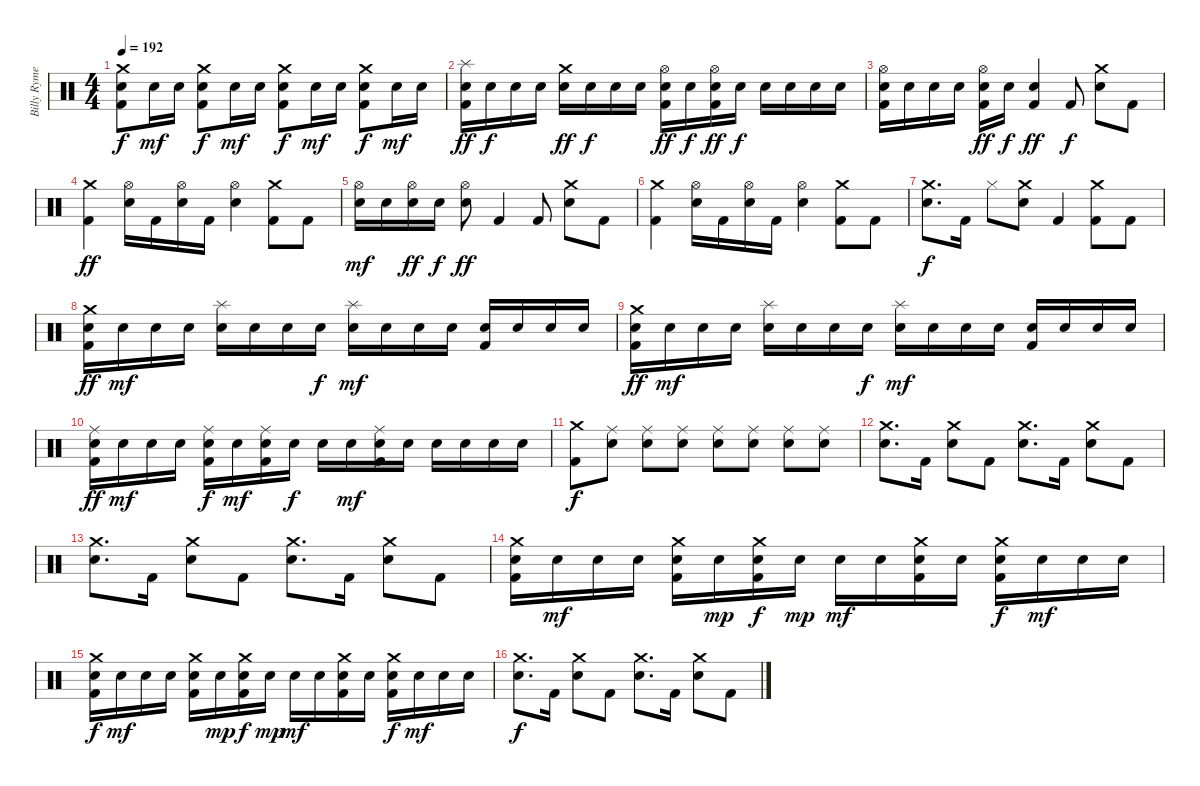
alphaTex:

\track ("Billy Rymer" "Billy Ryme") {instrument percussion}
\staff {score}
\articulation defaults
\ts (4 4)
\tempo 192
\clef neutral
\ks c
("Crash medium (hit)" "Electric Snare (hit)" "Kick (hit) 2").8{dy f} "Electric Snare (hit)".16{dy mf} "Electric Snare (hit)".16 ("Crash medium (hit)" "Electric Snare (hit)" "Kick (hit) 2").8{dy f} "Electric Snare (hit)".16{dy mf} "Electric Snare (hit)".16 ("Crash medium (hit)" "Electric Snare (hit)" "Kick (hit) 2").8{dy f} "Electric Snare (hit)".16{dy mf} "Electric Snare (hit)".16 ("Crash medium (hit)" "Electric Snare (hit)" "Kick (hit) 2").8{dy f} "Electric Snare (hit)".16{dy mf} "Electric Snare (hit)".16 |
("Splash (hit)" "Electric Snare (hit)" "Kick (hit) 2").16{dy ff} "Electric Snare (hit)".16{dy f} "Electric Snare (hit)".16 "Electric Snare (hit)".16 ("Crash medium (hit)" "Electric Snare (hit)").16{dy ff} "Electric Snare (hit)".16{dy f} "Electric Snare (hit)".16 "Electric Snare (hit)".16 ("Hi-Hat (open)" "Electric Snare (hit)" "Kick (hit) 2").16{dy ff} "Electric Snare (hit)".16{dy f} ("Hi-Hat (open)" "Electric Snare (hit)" "Kick (hit) 2").16{dy ff} "Electric Snare (hit)".16{dy f} "Electric Snare (hit)".16 "Electric Snare (hit)".16 "Electric Snare (hit)".16 "Electric Snare (hit)".16 |
("Hi-Hat (open)" "Electric Snare (hit)" "Kick (hit) 2").16 "Electric Snare (hit)".16 "Electric Snare (hit)".16 "Electric Snare (hit)".16 ("Hi-Hat (open)" "Electric Snare (hit)" "Kick (hit) 2").16{dy ff} "Electric Snare (hit)".16{dy f} ("Electric Snare (hit)" "Kick (hit) 2").4{dy ff} "Kick (hit) 2".8{dy f} ("Crash medium (hit)" "Electric Snare (hit)").8 "Kick (hit) 2".8 |
("Crash medium (hit)" "Kick (hit) 2").4{dy ff} ("Hi-Hat (open)" "Electric Snare (hit)").16 "Kick (hit) 2".16 ("Hi-Hat (open)" "Electric Snare (hit)").16 "Kick (hit) 2".16 ("Hi-Hat (open)" "Electric Snare (hit)").4 ("Crash medium (hit)" "Kick (hit) 2").8 "Kick (hit) 2".8 |
("Hi-Hat (open)" "Electric Snare (hit)").16{dy mf} "Electric Snare (hit)".16 ("Hi-Hat (open)" "Electric Snare (hit)").16{dy ff} "Electric Snare (hit)".16{dy f} ("Hi-Hat (open)" "Electric Snare (hit)").8{dy ff} "Kick (hit) 2".4 "Kick (hit) 2".8 ("Crash medium (hit)" "Electric Snare (hit)").8 "Kick (hit) 2".8 |
("Crash medium (hit)" "Kick (hit) 2").4 ("Hi-Hat (open)" "Electric Snare (hit)").16 "Kick (hit) 2".16 ("Hi-Hat (open)" "Electric Snare (hit)").16 "Kick (hit) 2".16 ("Hi-Hat (open)" "Electric Snare (hit)").4 ("Crash medium (hit)" "Kick (hit) 2").8 "Kick (hit) 2".8 |
("Crash medium (hit)" "Electric Snare (hit)").8{d dy f} "Kick (hit) 2".16 "Hi-Hat (closed)".8 ("Crash medium (hit)" "Electric Snare (hit)").8 "Kick (hit) 2".4 ("Crash medium (hit)" "Kick (hit) 2").8 "Kick (hit) 2".8 |
("Crash medium (hit)" "Electric Snare (hit)" "Kick (hit) 2").16{dy ff} "Electric Snare (hit)".16{dy mf} "Electric Snare (hit)".16 "Electric Snare (hit)".16 ("Splash (hit)" "Electric Snare (hit)").16 "Electric Snare (hit)".16 "Electric Snare (hit)".16 "Electric Snare (hit)".16{dy f} ("Splash (hit)" "Electric Snare (hit)").16{dy mf} "Electric Snare (hit)".16 "Electric Snare (hit)".16 "Electric Snare (hit)".16 ("Electric Snare (hit)" "Kick (hit) 2").16 "Electric Snare (hit)".16 "Electric Snare (hit)".16 "Electric Snare (hit)".16 |
("Crash medium (hit)" "Electric Snare (hit)" "Kick (hit) 2").16{dy ff} "Electric Snare (hit)".16{dy mf} "Electric Snare (hit)".16 "Electric Snare (hit)".16 ("Splash (hit)" "Electric Snare (hit)").16 "Electric Snare (hit)".16 "Electric Snare (hit)".16 "Electric Snare (hit)".16{dy f} ("Splash (hit)" "Electric Snare (hit)").16{dy mf} "Electric Snare (hit)".16 "Electric Snare (hit)".16 "Electric Snare (hit)".16 ("Electric Snare (hit)" "Kick (hit) 2").16 "Electric Snare (hit)".16 "Electric Snare (hit)".16 "Electric Snare (hit)".16 |
("Ride (middle)" "Electric Snare (hit)" "Kick (hit) 2").16{dy ff} "Electric Snare (hit)".16{dy mf} "Electric Snare (hit)".16 "Electric Snare (hit)".16 ("Ride (middle)" "Electric Snare (hit)" "Kick (hit) 2").16{dy f} "Electric Snare (hit)".16{dy mf} ("Ride (middle)" "Electric Snare (hit)" "Kick (hit) 2").16 "Electric Snare (hit)".16{dy f} "Electric Snare (hit)".16 "Electric Snare (hit)".16{dy mf} ("Ride (middle)" "Electric Snare (hit)" "Kick (hit) 2").16 "Electric Snare (hit)".16 "Electric Snare (hit)".16 "Electric Snare (hit)".16 "Electric Snare (hit)".16 "Electric Snare (hit)".16 |
("Crash medium (hit)" "Kick (hit) 2").8{dy f} ("Ride (middle)" "Electric Snare (hit)").8 ("Ride (middle)" "Electric Snare (hit)").8 ("Ride (middle)" "Electric Snare (hit)").8 ("Ride (middle)" "Electric Snare (hit)").8 ("Ride (middle)" "Electric Snare (hit)").8 ("Ride (middle)" "Electric Snare (hit)").8 ("Ride (middle)" "Electric Snare (hit)").8 |
("Crash medium (hit)" "Electric Snare (hit)").8{d} "Kick (hit) 2".16 ("Crash medium (hit)" "Electric Snare (hit)").8 "Kick (hit) 2".8 ("Crash medium (hit)" "Electric Snare (hit)").8{d} "Kick (hit) 2".16 ("Crash medium (hit)" "Electric Snare (hit)").8 "Kick (hit) 2".8 |
("Crash medium (hit)" "Electric Snare (hit)").8{d} "Kick (hit) 2".16 ("Crash medium (hit)" "Electric Snare (hit)").8 "Kick (hit) 2".8 ("Crash medium (hit)" "Electric Snare (hit)").8{d} "Kick (hit) 2".16 ("Crash medium (hit)" "Electric Snare (hit)").8 "Kick (hit) 2".8 |
("Crash medium (hit)" "Electric Snare (hit)" "Kick (hit) 2").16 "Electric Snare (hit)".16{dy mf} "Electric Snare (hit)".16 "Electric Snare (hit)".16 ("Crash medium (hit)" "Electric Snare (hit)" "Kick (hit) 2").16 "Electric Snare (hit)".16{dy mp} ("Crash medium (hit)" "Electric Snare (hit)" "Kick (hit) 2").16{dy f} "Electric Snare (hit)".16{dy mp} "Electric Snare (hit)".16{dy mf} "Electric Snare (hit)".16 ("Crash medium (hit)" "Electric Snare (hit)" "Kick (hit) 2").16 "Electric Snare (hit)".16 ("Crash medium (hit)" "Electric Snare (hit)" "Kick (hit) 2").16{dy f} "Electric Snare (hit)".16{dy mf} "Electric Snare (hit)".16 "Electric Snare (hit)".16 |
("Crash medium (hit)" "Electric Snare (hit)" "Kick (hit) 2").16{dy f} "Electric Snare (hit)".16{dy mf} "Electric Snare (hit)".16 "Electric Snare (hit)".16 ("Crash medium (hit)" "Electric Snare (hit)" "Kick (hit) 2").16 "Electric Snare (hit)".16{dy mp} ("Crash medium (hit)" "Electric Snare (hit)" "Kick (hit) 2").16{dy f} "Electric Snare (hit)".16{dy mp} "Electric Snare (hit)".16{dy mf} "Electric Snare (hit)".16 ("Crash medium (hit)" "Electric Snare (hit)" "Kick (hit) 2").16 "Electric Snare (hit)".16 ("Crash medium (hit)" "Electric Snare (hit)" "Kick (hit) 2").16{dy f} "Electric Snare (hit)".16{dy mf} "Electric Snare (hit)".16 "Electric Snare (hit)".16 |
("Crash medium (hit)" "Electric Snare (hit)").8{d dy f} "Kick (hit) 2".16 ("Crash medium (hit)" "Electric Snare (hit)").8 "Kick (hit) 2".8 ("Crash medium (hit)" "Electric Snare (hit)").8{d} "Kick (hit) 2".16 ("Crash medium (hit)" "Electric Snare (hit)").8 "Kick (hit) 2".8
